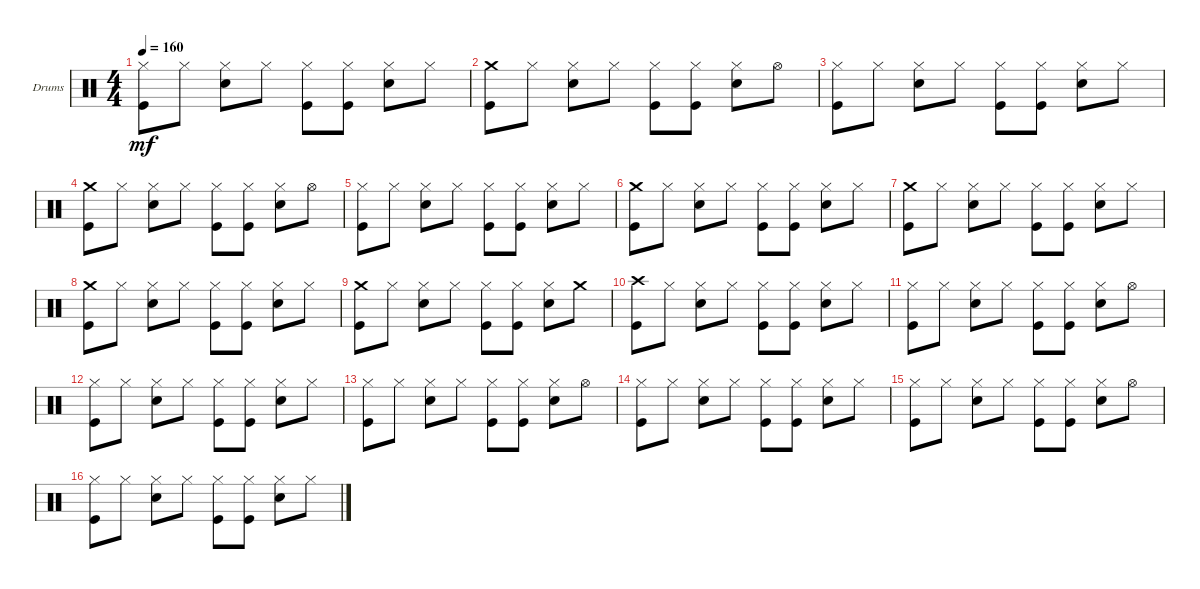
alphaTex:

\defaultSystemsLayout 4
\bracketExtendMode groupsimilarinstruments
\firstSystemTrackNameOrientation horizontal
\otherSystemsTrackNameOrientation horizontal
\track ("Drumkit" "Drums") {instrument percussion}
\staff {score}
\articulation defaults
\ts (4 4)
\tempo 160
\clef neutral
\ks c
("Kick (hit)" "Hi-Hat (closed)").8{dy mf} "Hi-Hat (closed)".8 ("Snare (hit) 2" "Hi-Hat (closed)").8 "Hi-Hat (closed)".8 ("Hi-Hat (closed)" "Kick (hit)").8 ("Kick (hit)" "Hi-Hat (closed)").8 ("Snare (hit) 2" "Hi-Hat (closed)").8 "Hi-Hat (closed)".8 |
("Kick (hit)" "Crash medium (hit)").8 "Hi-Hat (closed)".8 ("Snare (hit) 2" "Hi-Hat (closed)").8 "Hi-Hat (closed)".8 ("Hi-Hat (closed)" "Kick (hit)").8 ("Kick (hit)" "Hi-Hat (closed)").8 ("Snare (hit) 2" "Hi-Hat (closed)").8 "Hi-Hat (open)".8 |
("Kick (hit)" "Hi-Hat (closed)").8 "Hi-Hat (closed)".8 ("Snare (hit) 2" "Hi-Hat (closed)").8 "Hi-Hat (closed)".8 ("Hi-Hat (closed)" "Kick (hit)").8 ("Kick (hit)" "Hi-Hat (closed)").8 ("Snare (hit) 2" "Hi-Hat (closed)").8 "Hi-Hat (closed)".8 |
("Kick (hit)" "Crash medium (hit)").8 "Hi-Hat (closed)".8 ("Snare (hit) 2" "Hi-Hat (closed)").8 "Hi-Hat (closed)".8 ("Hi-Hat (closed)" "Kick (hit)").8 ("Kick (hit)" "Hi-Hat (closed)").8 ("Snare (hit) 2" "Hi-Hat (closed)").8 "Hi-Hat (open)".8 |
("Kick (hit)" "Hi-Hat (closed)").8 "Hi-Hat (closed)".8 ("Snare (hit) 2" "Hi-Hat (closed)").8 "Hi-Hat (closed)".8 ("Hi-Hat (closed)" "Kick (hit)").8 ("Kick (hit)" "Hi-Hat (closed)").8 ("Snare (hit) 2" "Hi-Hat (closed)").8 "Hi-Hat (closed)".8 |
("Kick (hit)" "Crash medium (hit)").8 "Hi-Hat (closed)".8 ("Snare (hit) 2" "Hi-Hat (closed)").8 "Hi-Hat (closed)".8 ("Hi-Hat (closed)" "Kick (hit)").8 ("Kick (hit)" "Hi-Hat (closed)").8 ("Snare (hit) 2" "Hi-Hat (closed)").8 "Hi-Hat (closed)".8 |
("Kick (hit)" "Crash medium (hit)").8 "Hi-Hat (closed)".8 ("Snare (hit) 2" "Hi-Hat (closed)").8 "Hi-Hat (closed)".8 ("Hi-Hat (closed)" "Kick (hit)").8 ("Kick (hit)" "Hi-Hat (closed)").8 ("Snare (hit) 2" "Hi-Hat (closed)").8 "Hi-Hat (closed)".8 |
("Kick (hit)" "Crash medium (hit)").8 "Hi-Hat (closed)".8 ("Snare (hit) 2" "Hi-Hat (closed)").8 "Hi-Hat (closed)".8 ("Hi-Hat (closed)" "Kick (hit)").8 ("Kick (hit)" "Hi-Hat (closed)").8 ("Snare (hit) 2" "Hi-Hat (closed)").8 "Hi-Hat (closed)".8 |
("Kick (hit)" "Crash medium (hit)").8 "Hi-Hat (closed)".8 ("Snare (hit) 2" "Hi-Hat (closed)").8 "Hi-Hat (closed)".8 ("Hi-Hat (closed)" "Kick (hit)").8 ("Kick (hit)" "Hi-Hat (closed)").8 ("Snare (hit) 2" "Hi-Hat (closed)").8 "Crash medium (hit)".8 |
("Kick (hit)" "Crash high (hit)").8 "Hi-Hat (closed)".8 ("Snare (hit) 2" "Hi-Hat (closed)").8 "Hi-Hat (closed)".8 ("Hi-Hat (closed)" "Kick (hit)").8 ("Kick (hit)" "Hi-Hat (closed)").8 ("Snare (hit) 2" "Hi-Hat (closed)").8 "Hi-Hat (closed)".8 |
("Kick (hit)" "Hi-Hat (closed)").8 "Hi-Hat (closed)".8 ("Snare (hit) 2" "Hi-Hat (closed)").8 "Hi-Hat (closed)".8 ("Hi-Hat (closed)" "Kick (hit)").8 ("Kick (hit)" "Hi-Hat (closed)").8 ("Snare (hit) 2" "Hi-Hat (closed)").8 "Hi-Hat (open)".8 |
("Kick (hit)" "Hi-Hat (closed)").8 "Hi-Hat (closed)".8 ("Snare (hit) 2" "Hi-Hat (closed)").8 "Hi-Hat (closed)".8 ("Hi-Hat (closed)" "Kick (hit)").8 ("Kick (hit)" "Hi-Hat (closed)").8 ("Snare (hit) 2" "Hi-Hat (closed)").8 "Hi-Hat (closed)".8 |
("Kick (hit)" "Hi-Hat (closed)").8 "Hi-Hat (closed)".8 ("Snare (hit) 2" "Hi-Hat (closed)").8 "Hi-Hat (closed)".8 ("Hi-Hat (closed)" "Kick (hit)").8 ("Kick (hit)" "Hi-Hat (closed)").8 ("Snare (hit) 2" "Hi-Hat (closed)").8 "Hi-Hat (open)".8 |
("Kick (hit)" "Hi-Hat (closed)").8 "Hi-Hat (closed)".8 ("Snare (hit) 2" "Hi-Hat (closed)").8 "Hi-Hat (closed)".8 ("Hi-Hat (closed)" "Kick (hit)").8 ("Kick (hit)" "Hi-Hat (closed)").8 ("Snare (hit) 2" "Hi-Hat (closed)").8 "Hi-Hat (closed)".8 |
("Kick (hit)" "Hi-Hat (closed)").8 "Hi-Hat (closed)".8 ("Snare (hit) 2" "Hi-Hat (closed)").8 "Hi-Hat (closed)".8 ("Hi-Hat (closed)" "Kick (hit)").8 ("Kick (hit)" "Hi-Hat (closed)").8 ("Snare (hit) 2" "Hi-Hat (closed)").8 "Hi-Hat (open)".8 |
("Kick (hit)" "Hi-Hat (closed)").8 "Hi-Hat (closed)".8 ("Snare (hit) 2" "Hi-Hat (closed)").8 "Hi-Hat (closed)".8 ("Hi-Hat (closed)" "Kick (hit)").8 ("Kick (hit)" "Hi-Hat (closed)").8 ("Snare (hit) 2" "Hi-Hat (closed)").8 "Hi-Hat (closed)".8
